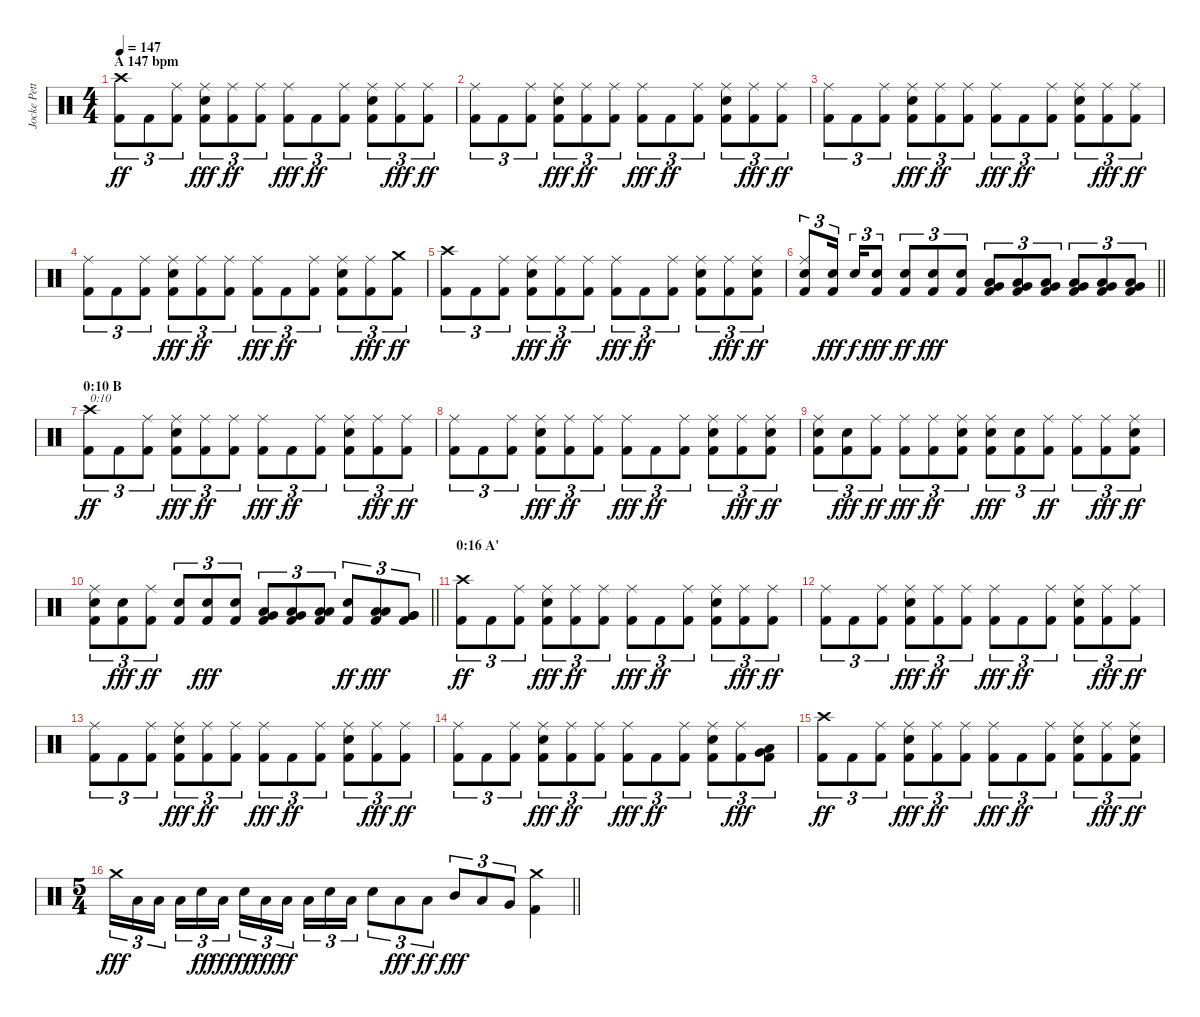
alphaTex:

\track ("Jocke Pettersson" "Jocke Pett") {instrument percussion}
\staff {score}
\articulation defaults
\ts (4 4)
\section ("" "A 147 bpm")
\tempo 147
\clef neutral
\ks c
("Kick (hit) 2" "Crash high (hit)").8{tu (3 2) dy ff} "Kick (hit) 2".8{tu (3 2)} ("Kick (hit) 2" "Ride (middle)").8{tu (3 2)} ("Kick (hit) 2" "Electric Snare (hit)" "Ride (middle)").8{tu (3 2) dy fff} ("Kick (hit) 2" "Ride (middle)").8{tu (3 2) dy ff} ("Kick (hit) 2" "Ride (middle)").8{tu (3 2)} ("Kick (hit) 2" "Ride (middle)").8{tu (3 2) dy fff} "Kick (hit) 2".8{tu (3 2) dy ff} ("Kick (hit) 2" "Ride (middle)").8{tu (3 2)} ("Kick (hit) 2" "Electric Snare (hit)" "Ride (middle)").8{tu (3 2)} ("Kick (hit) 2" "Ride (middle)").8{tu (3 2) dy fff} ("Kick (hit) 2" "Ride (middle)").8{tu (3 2) dy ff} |
("Kick (hit) 2" "Ride (middle)").8{tu (3 2)} "Kick (hit) 2".8{tu (3 2)} ("Kick (hit) 2" "Ride (middle)").8{tu (3 2)} ("Kick (hit) 2" "Electric Snare (hit)" "Ride (middle)").8{tu (3 2) dy fff} ("Kick (hit) 2" "Ride (middle)").8{tu (3 2) dy ff} ("Kick (hit) 2" "Ride (middle)").8{tu (3 2)} ("Kick (hit) 2" "Ride (middle)").8{tu (3 2) dy fff} "Kick (hit) 2".8{tu (3 2) dy ff} ("Kick (hit) 2" "Ride (middle)").8{tu (3 2)} ("Kick (hit) 2" "Electric Snare (hit)" "Ride (middle)").8{tu (3 2)} ("Kick (hit) 2" "Ride (middle)").8{tu (3 2) dy fff} ("Kick (hit) 2" "Ride (middle)").8{tu (3 2) dy ff} |
("Kick (hit) 2" "Ride (middle)").8{tu (3 2)} "Kick (hit) 2".8{tu (3 2)} ("Kick (hit) 2" "Ride (middle)").8{tu (3 2)} ("Kick (hit) 2" "Electric Snare (hit)" "Ride (middle)").8{tu (3 2) dy fff} ("Kick (hit) 2" "Ride (middle)").8{tu (3 2) dy ff} ("Kick (hit) 2" "Ride (middle)").8{tu (3 2)} ("Kick (hit) 2" "Ride (middle)").8{tu (3 2) dy fff} "Kick (hit) 2".8{tu (3 2) dy ff} ("Kick (hit) 2" "Ride (middle)").8{tu (3 2)} ("Kick (hit) 2" "Electric Snare (hit)" "Ride (middle)").8{tu (3 2)} ("Kick (hit) 2" "Ride (middle)").8{tu (3 2) dy fff} ("Kick (hit) 2" "Ride (middle)").8{tu (3 2) dy ff} |
("Kick (hit) 2" "Ride (middle)").8{tu (3 2)} "Kick (hit) 2".8{tu (3 2)} ("Kick (hit) 2" "Ride (middle)").8{tu (3 2)} ("Kick (hit) 2" "Electric Snare (hit)" "Ride (middle)").8{tu (3 2) dy fff} ("Kick (hit) 2" "Ride (middle)").8{tu (3 2) dy ff} ("Kick (hit) 2" "Ride (middle)").8{tu (3 2)} ("Kick (hit) 2" "Ride (middle)").8{tu (3 2) dy fff} "Kick (hit) 2".8{tu (3 2) dy ff} ("Kick (hit) 2" "Ride (middle)").8{tu (3 2)} ("Kick (hit) 2" "Electric Snare (hit)" "Ride (middle)").8{tu (3 2)} ("Kick (hit) 2" "Ride (middle)").8{tu (3 2) dy fff} ("Kick (hit) 2" "Crash medium (hit)").8{tu (3 2) dy ff} |
("Kick (hit) 2" "Crash high (hit)").8{tu (3 2)} "Kick (hit) 2".8{tu (3 2)} ("Kick (hit) 2" "Ride (middle)").8{tu (3 2)} ("Kick (hit) 2" "Electric Snare (hit)" "Ride (middle)").8{tu (3 2) dy fff} ("Kick (hit) 2" "Ride (middle)").8{tu (3 2) dy ff} ("Kick (hit) 2" "Ride (middle)").8{tu (3 2)} ("Kick (hit) 2" "Ride (middle)").8{tu (3 2) dy fff} "Kick (hit) 2".8{tu (3 2) dy ff} ("Kick (hit) 2" "Ride (middle)").8{tu (3 2)} ("Kick (hit) 2" "Electric Snare (hit)" "Ride (middle)").8{tu (3 2)} ("Kick (hit) 2" "Ride (middle)").8{tu (3 2) dy fff} ("Kick (hit) 2" "Electric Snare (hit)" "Ride (middle)").8{tu (3 2) dy ff} |
\barLineRight lightlight
("Kick (hit) 2" "Electric Snare (hit)" "Ride (middle)").8{tu (3 2)} ("Kick (hit) 2" "Electric Snare (hit)").16{tu (3 2) dy fff beam splitsecondary} "Electric Snare (hit)".16{tu (3 2) dy f} ("Kick (hit) 2" "Electric Snare (hit)").8{tu (3 2) dy fff} ("Kick (hit) 2" "Electric Snare (hit)").8{tu (3 2) dy ff} ("Kick (hit) 2" "Electric Snare (hit)").8{tu (3 2) dy fff} ("Kick (hit) 2" "Electric Snare (hit)").8{tu (3 2)} ("Kick (hit) 2" "Low Tom (hit)" "Very Low Tom (hit)").8{tu (3 2)} ("Kick (hit) 2" "Low Tom (hit)" "Very Low Tom (hit)").8{tu (3 2)} ("Kick (hit) 2" "Low Tom (hit)" "Very Low Tom (hit)").8{tu (3 2)} ("Kick (hit) 2" "Very Low Tom (hit)" "Low Floor Tom (hit)").8{tu (3 2)} ("Kick (hit) 2" "Very Low Tom (hit)" "Low Floor Tom (hit)").8{tu (3 2)} ("Kick (hit) 2" "Very Low Tom (hit)" "Low Floor Tom (hit)").8{tu (3 2)} |
\section ("" "0:10 B")
("Kick (hit) 2" "Crash high (hit)").8{tu (3 2) txt "0:10" dy ff} "Kick (hit) 2".8{tu (3 2)} ("Kick (hit) 2" "Ride (middle)").8{tu (3 2)} ("Kick (hit) 2" "Electric Snare (hit)" "Ride (middle)").8{tu (3 2) dy fff} ("Kick (hit) 2" "Ride (middle)").8{tu (3 2) dy ff} ("Kick (hit) 2" "Ride (middle)").8{tu (3 2)} ("Kick (hit) 2" "Ride (middle)").8{tu (3 2) dy fff} "Kick (hit) 2".8{tu (3 2) dy ff} ("Kick (hit) 2" "Ride (middle)").8{tu (3 2)} ("Kick (hit) 2" "Electric Snare (hit)" "Ride (middle)").8{tu (3 2)} ("Kick (hit) 2" "Ride (middle)").8{tu (3 2) dy fff} ("Kick (hit) 2" "Ride (middle)").8{tu (3 2) dy ff} |
("Kick (hit) 2" "Ride (middle)").8{tu (3 2)} "Kick (hit) 2".8{tu (3 2)} ("Kick (hit) 2" "Ride (middle)").8{tu (3 2)} ("Kick (hit) 2" "Electric Snare (hit)" "Ride (middle)").8{tu (3 2) dy fff} ("Kick (hit) 2" "Ride (middle)").8{tu (3 2) dy ff} ("Kick (hit) 2" "Ride (middle)").8{tu (3 2)} ("Kick (hit) 2" "Ride (middle)").8{tu (3 2) dy fff} "Kick (hit) 2".8{tu (3 2) dy ff} ("Kick (hit) 2" "Ride (middle)").8{tu (3 2)} ("Kick (hit) 2" "Electric Snare (hit)" "Ride (middle)").8{tu (3 2)} ("Kick (hit) 2" "Ride (middle)").8{tu (3 2) dy fff} ("Kick (hit) 2" "Electric Snare (hit)" "Ride (middle)").8{tu (3 2) dy ff} |
("Kick (hit) 2" "Electric Snare (hit)" "Ride (middle)").8{tu (3 2)} ("Kick (hit) 2" "Electric Snare (hit)").8{tu (3 2) dy fff} ("Kick (hit) 2" "Ride (middle)").8{tu (3 2) dy ff} ("Kick (hit) 2" "Ride (middle)").8{tu (3 2) dy fff} ("Kick (hit) 2" "Ride (middle)").8{tu (3 2) dy ff} ("Kick (hit) 2" "Electric Snare (hit)" "Ride (middle)").8{tu (3 2)} ("Kick (hit) 2" "Electric Snare (hit)" "Ride (middle)").8{tu (3 2) dy fff} ("Kick (hit) 2" "Electric Snare (hit)").8{tu (3 2)} ("Kick (hit) 2" "Ride (middle)").8{tu (3 2) dy ff} ("Kick (hit) 2" "Ride (middle)").8{tu (3 2)} ("Kick (hit) 2" "Ride (middle)").8{tu (3 2) dy fff} ("Kick (hit) 2" "Electric Snare (hit)" "Ride (middle)").8{tu (3 2) dy ff} |
\barLineRight lightlight
("Kick (hit) 2" "Electric Snare (hit)" "Ride (middle)").8{tu (3 2)} ("Kick (hit) 2" "Electric Snare (hit)").8{tu (3 2) dy fff} ("Kick (hit) 2" "Ride (middle)").8{tu (3 2) dy ff} ("Kick (hit) 2" "Electric Snare (hit)").8{tu (3 2)} ("Kick (hit) 2" "Electric Snare (hit)").8{tu (3 2) dy fff} ("Kick (hit) 2" "Electric Snare (hit)").8{tu (3 2)} ("Kick (hit) 2" "Low Tom (hit)" "Very Low Tom (hit)").8{tu (3 2)} ("Kick (hit) 2" "Low Tom (hit)" "Very Low Tom (hit)").8{tu (3 2)} ("Kick (hit) 2" "Low Tom (hit)" "Low Floor Tom (hit)").8{tu (3 2)} ("Kick (hit) 2" "Electric Snare (hit)").8{tu (3 2) dy ff} ("Kick (hit) 2" "Low Tom (hit)" "Low Tom (hit)").8{tu (3 2) dy fff} ("Kick (hit) 2" "Very Low Tom (hit)" "Very Low Tom (hit)").8{tu (3 2)} |
\section ("" "0:16 A'")
("Kick (hit) 2" "Crash high (hit)").8{tu (3 2) dy ff} "Kick (hit) 2".8{tu (3 2)} ("Kick (hit) 2" "Ride (middle)").8{tu (3 2)} ("Kick (hit) 2" "Electric Snare (hit)" "Ride (middle)").8{tu (3 2) dy fff} ("Kick (hit) 2" "Ride (middle)").8{tu (3 2) dy ff} ("Kick (hit) 2" "Ride (middle)").8{tu (3 2)} ("Kick (hit) 2" "Ride (middle)").8{tu (3 2) dy fff} "Kick (hit) 2".8{tu (3 2) dy ff} ("Kick (hit) 2" "Ride (middle)").8{tu (3 2)} ("Kick (hit) 2" "Electric Snare (hit)" "Ride (middle)").8{tu (3 2)} ("Kick (hit) 2" "Ride (middle)").8{tu (3 2) dy fff} ("Kick (hit) 2" "Ride (middle)").8{tu (3 2) dy ff} |
("Kick (hit) 2" "Ride (middle)").8{tu (3 2)} "Kick (hit) 2".8{tu (3 2)} ("Kick (hit) 2" "Ride (middle)").8{tu (3 2)} ("Kick (hit) 2" "Electric Snare (hit)" "Ride (middle)").8{tu (3 2) dy fff} ("Kick (hit) 2" "Ride (middle)").8{tu (3 2) dy ff} ("Kick (hit) 2" "Ride (middle)").8{tu (3 2)} ("Kick (hit) 2" "Ride (middle)").8{tu (3 2) dy fff} "Kick (hit) 2".8{tu (3 2) dy ff} ("Kick (hit) 2" "Ride (middle)").8{tu (3 2)} ("Kick (hit) 2" "Electric Snare (hit)" "Ride (middle)").8{tu (3 2)} ("Kick (hit) 2" "Ride (middle)").8{tu (3 2) dy fff} ("Kick (hit) 2" "Ride (middle)").8{tu (3 2) dy ff} |
("Kick (hit) 2" "Ride (middle)").8{tu (3 2)} "Kick (hit) 2".8{tu (3 2)} ("Kick (hit) 2" "Ride (middle)").8{tu (3 2)} ("Kick (hit) 2" "Electric Snare (hit)" "Ride (middle)").8{tu (3 2) dy fff} ("Kick (hit) 2" "Ride (middle)").8{tu (3 2) dy ff} ("Kick (hit) 2" "Ride (middle)").8{tu (3 2)} ("Kick (hit) 2" "Ride (middle)").8{tu (3 2) dy fff} "Kick (hit) 2".8{tu (3 2) dy ff} ("Kick (hit) 2" "Ride (middle)").8{tu (3 2)} ("Kick (hit) 2" "Electric Snare (hit)" "Ride (middle)").8{tu (3 2)} ("Kick (hit) 2" "Ride (middle)").8{tu (3 2) dy fff} ("Kick (hit) 2" "Ride (middle)").8{tu (3 2) dy ff} |
("Kick (hit) 2" "Ride (middle)").8{tu (3 2)} "Kick (hit) 2".8{tu (3 2)} ("Kick (hit) 2" "Ride (middle)").8{tu (3 2)} ("Kick (hit) 2" "Electric Snare (hit)" "Ride (middle)").8{tu (3 2) dy fff} ("Kick (hit) 2" "Ride (middle)").8{tu (3 2) dy ff} ("Kick (hit) 2" "Ride (middle)").8{tu (3 2)} ("Kick (hit) 2" "Ride (middle)").8{tu (3 2) dy fff} "Kick (hit) 2".8{tu (3 2) dy ff} ("Kick (hit) 2" "Ride (middle)").8{tu (3 2)} ("Kick (hit) 2" "Electric Snare (hit)" "Ride (middle)").8{tu (3 2)} ("Kick (hit) 2" "Ride (middle)").8{tu (3 2) dy fff} ("Kick (hit) 2" "Low Tom (hit)" "Very Low Tom (hit)").8{tu (3 2)} |
("Kick (hit) 2" "Crash high (hit)").8{tu (3 2) dy ff} "Kick (hit) 2".8{tu (3 2)} ("Kick (hit) 2" "Ride (middle)").8{tu (3 2)} ("Kick (hit) 2" "Electric Snare (hit)" "Ride (middle)").8{tu (3 2) dy fff} ("Kick (hit) 2" "Ride (middle)").8{tu (3 2) dy ff} ("Kick (hit) 2" "Ride (middle)").8{tu (3 2)} ("Kick (hit) 2" "Ride (middle)").8{tu (3 2) dy fff} "Kick (hit) 2".8{tu (3 2) dy ff} ("Kick (hit) 2" "Ride (middle)").8{tu (3 2)} ("Kick (hit) 2" "Electric Snare (hit)" "Ride (middle)").8{tu (3 2)} ("Kick (hit) 2" "Ride (middle)").8{tu (3 2) dy fff} ("Kick (hit) 2" "Electric Snare (hit)" "Ride (middle)").8{tu (3 2) dy ff} |
\ts (5 4)
\barLineRight lightlight "Crash medium (hit)".16{tu (3 2) dy fff} "Low Tom (hit)".16{tu (3 2)} "Low Tom (hit)".16{tu (3 2) beam splitsecondary} "Low Tom (hit)".16{tu (3 2)} "Electric Snare (hit)".16{tu (3 2) dy ff} "Low Tom (hit)".16{tu (3 2) dy fff} "Electric Snare (hit)".16{tu (3 2) dy ff} "Low Tom (hit)".16{tu (3 2) dy fff} "Low Tom (hit)".16{tu (3 2) dy ff beam splitsecondary} "Low Tom (hit)".16{tu (3 2)} "Electric Snare (hit)".16{tu (3 2)} "Low Tom (hit)".16{tu (3 2)} "Electric Snare (hit)".8{tu (3 2)} "Low Tom (hit)".8{tu (3 2) dy fff} "Low Tom (hit)".8{tu (3 2) dy ff} "Mid Tom (hit)".8{tu (3 2) dy fff} "Low Tom (hit)".8{tu (3 2)} "Very Low Tom (hit)".8{tu (3 2)}
("Kick (hit) 2" "Crash medium (hit)").4
